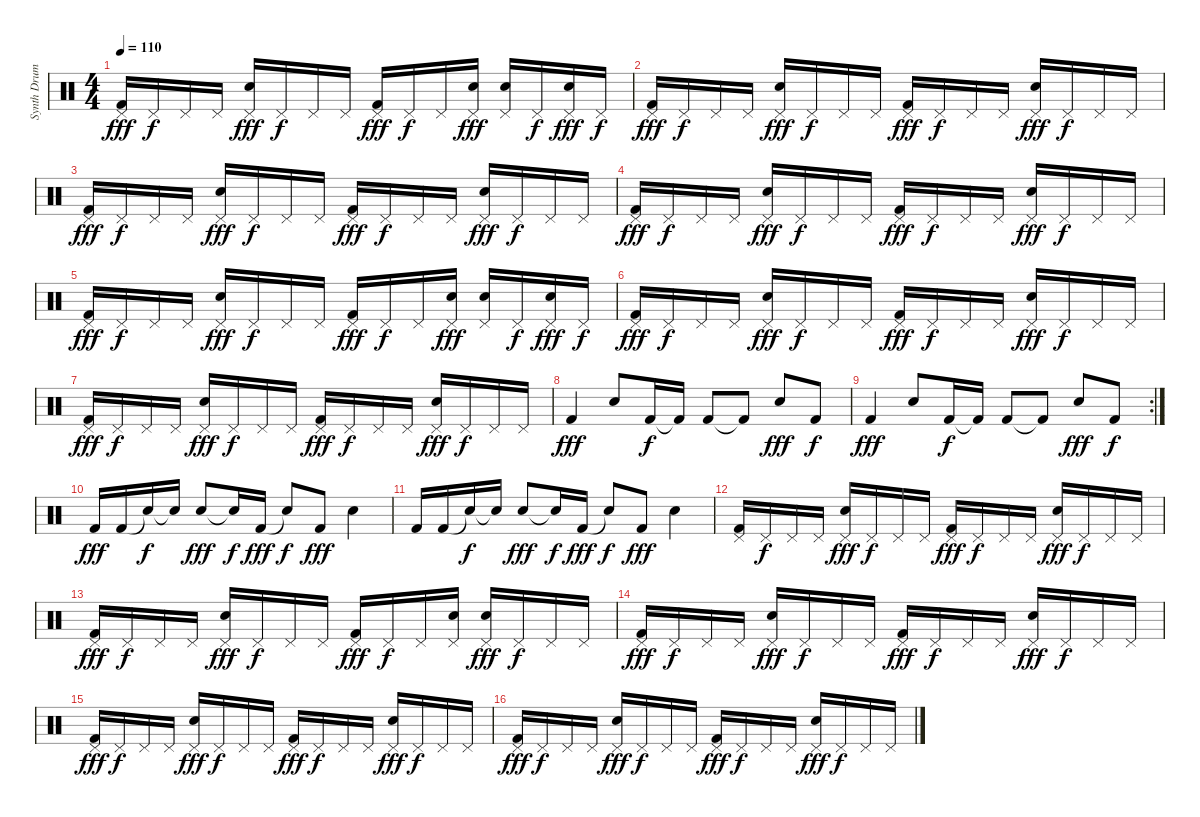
\track ("Synth Drums" "Synth Drum") {instrument percussion}
\staff {score}
\articulation defaults
\ts (4 4)
\tempo 110
\clef neutral
\ks c
("Pedal Hi-Hat (hit)" "Kick (hit) 2").16{dy fff} "Pedal Hi-Hat (hit)".16{dy f} "Pedal Hi-Hat (hit)".16 "Pedal Hi-Hat (hit)".16 ("Pedal Hi-Hat (hit)" "Snare (hit) 2").16{dy fff} "Pedal Hi-Hat (hit)".16{dy f} "Pedal Hi-Hat (hit)".16 "Pedal Hi-Hat (hit)".16 ("Pedal Hi-Hat (hit)" "Kick (hit) 2").16{dy fff} "Pedal Hi-Hat (hit)".16{dy f} "Pedal Hi-Hat (hit)".16 ("Pedal Hi-Hat (hit)" "Snare (hit) 2").16{dy fff} ("Pedal Hi-Hat (hit)" "Snare (hit) 2").16 "Pedal Hi-Hat (hit)".16{dy f} ("Pedal Hi-Hat (hit)" "Snare (hit) 2").16{dy fff} "Pedal Hi-Hat (hit)".16{dy f} |
("Pedal Hi-Hat (hit)" "Kick (hit) 2").16{dy fff} "Pedal Hi-Hat (hit)".16{dy f} "Pedal Hi-Hat (hit)".16 "Pedal Hi-Hat (hit)".16 ("Pedal Hi-Hat (hit)" "Snare (hit) 2").16{dy fff} "Pedal Hi-Hat (hit)".16{dy f} "Pedal Hi-Hat (hit)".16 "Pedal Hi-Hat (hit)".16 ("Pedal Hi-Hat (hit)" "Kick (hit) 2").16{dy fff} "Pedal Hi-Hat (hit)".16{dy f} "Pedal Hi-Hat (hit)".16 "Pedal Hi-Hat (hit)".16 ("Pedal Hi-Hat (hit)" "Snare (hit) 2").16{dy fff} "Pedal Hi-Hat (hit)".16{dy f} "Pedal Hi-Hat (hit)".16 "Pedal Hi-Hat (hit)".16 |
("Pedal Hi-Hat (hit)" "Kick (hit) 2").16{dy fff} "Pedal Hi-Hat (hit)".16{dy f} "Pedal Hi-Hat (hit)".16 "Pedal Hi-Hat (hit)".16 ("Pedal Hi-Hat (hit)" "Snare (hit) 2").16{dy fff} "Pedal Hi-Hat (hit)".16{dy f} "Pedal Hi-Hat (hit)".16 "Pedal Hi-Hat (hit)".16 ("Pedal Hi-Hat (hit)" "Kick (hit) 2").16{dy fff} "Pedal Hi-Hat (hit)".16{dy f} "Pedal Hi-Hat (hit)".16 "Pedal Hi-Hat (hit)".16 ("Pedal Hi-Hat (hit)" "Snare (hit) 2").16{dy fff} "Pedal Hi-Hat (hit)".16{dy f} "Pedal Hi-Hat (hit)".16 "Pedal Hi-Hat (hit)".16 |
("Pedal Hi-Hat (hit)" "Kick (hit) 2").16{dy fff} "Pedal Hi-Hat (hit)".16{dy f} "Pedal Hi-Hat (hit)".16 "Pedal Hi-Hat (hit)".16 ("Pedal Hi-Hat (hit)" "Snare (hit) 2").16{dy fff} "Pedal Hi-Hat (hit)".16{dy f} "Pedal Hi-Hat (hit)".16 "Pedal Hi-Hat (hit)".16 ("Pedal Hi-Hat (hit)" "Kick (hit) 2").16{dy fff} "Pedal Hi-Hat (hit)".16{dy f} "Pedal Hi-Hat (hit)".16 "Pedal Hi-Hat (hit)".16 ("Pedal Hi-Hat (hit)" "Snare (hit) 2").16{dy fff} "Pedal Hi-Hat (hit)".16{dy f} "Pedal Hi-Hat (hit)".16 "Pedal Hi-Hat (hit)".16 |
("Pedal Hi-Hat (hit)" "Kick (hit) 2").16{dy fff} "Pedal Hi-Hat (hit)".16{dy f} "Pedal Hi-Hat (hit)".16 "Pedal Hi-Hat (hit)".16 ("Pedal Hi-Hat (hit)" "Snare (hit) 2").16{dy fff} "Pedal Hi-Hat (hit)".16{dy f} "Pedal Hi-Hat (hit)".16 "Pedal Hi-Hat (hit)".16 ("Pedal Hi-Hat (hit)" "Kick (hit) 2").16{dy fff} "Pedal Hi-Hat (hit)".16{dy f} "Pedal Hi-Hat (hit)".16 ("Pedal Hi-Hat (hit)" "Snare (hit) 2").16{dy fff} ("Pedal Hi-Hat (hit)" "Snare (hit) 2").16 "Pedal Hi-Hat (hit)".16{dy f} ("Pedal Hi-Hat (hit)" "Snare (hit) 2").16{dy fff} "Pedal Hi-Hat (hit)".16{dy f} |
("Pedal Hi-Hat (hit)" "Kick (hit) 2").16{dy fff} "Pedal Hi-Hat (hit)".16{dy f} "Pedal Hi-Hat (hit)".16 "Pedal Hi-Hat (hit)".16 ("Pedal Hi-Hat (hit)" "Snare (hit) 2").16{dy fff} "Pedal Hi-Hat (hit)".16{dy f} "Pedal Hi-Hat (hit)".16 "Pedal Hi-Hat (hit)".16 ("Pedal Hi-Hat (hit)" "Kick (hit) 2").16{dy fff} "Pedal Hi-Hat (hit)".16{dy f} "Pedal Hi-Hat (hit)".16 "Pedal Hi-Hat (hit)".16 ("Pedal Hi-Hat (hit)" "Snare (hit) 2").16{dy fff} "Pedal Hi-Hat (hit)".16{dy f} "Pedal Hi-Hat (hit)".16 "Pedal Hi-Hat (hit)".16 |
("Pedal Hi-Hat (hit)" "Kick (hit) 2").16{dy fff} "Pedal Hi-Hat (hit)".16{dy f} "Pedal Hi-Hat (hit)".16 "Pedal Hi-Hat (hit)".16 ("Pedal Hi-Hat (hit)" "Snare (hit) 2").16{dy fff} "Pedal Hi-Hat (hit)".16{dy f} "Pedal Hi-Hat (hit)".16 "Pedal Hi-Hat (hit)".16 ("Pedal Hi-Hat (hit)" "Kick (hit) 2").16{dy fff} "Pedal Hi-Hat (hit)".16{dy f} "Pedal Hi-Hat (hit)".16 "Pedal Hi-Hat (hit)".16 ("Pedal Hi-Hat (hit)" "Snare (hit) 2").16{dy fff} "Pedal Hi-Hat (hit)".16{dy f} "Pedal Hi-Hat (hit)".16 "Pedal Hi-Hat (hit)".16 |
"Kick (hit) 2".4{dy fff} "Snare (hit) 2".8 "Kick (hit) 2".16{dy f} "Kick (hit) 2"{t}.16 "Kick (hit) 2".8 "Kick (hit) 2"{t}.8 "Snare (hit) 2".8{dy fff} "Kick (hit) 2".8{dy f} |
\rc 2 "Kick (hit) 2".4{dy fff} "Snare (hit) 2".8 "Kick (hit) 2".16{dy f} "Kick (hit) 2"{t}.16 "Kick (hit) 2".8 "Kick (hit) 2"{t}.8 "Snare (hit) 2".8{dy fff} "Kick (hit) 2".8{dy f}
|
"Kick (hit) 2".16{dy fff} "Kick (hit) 2".16 "Snare (hit)"{t}.16{dy f} "Snare (hit)"{t}.16 "Snare (hit) 2".8{dy fff} "Snare (hit)"{t}.16{dy f} "Kick (hit) 2".16{dy fff} "Snare (hit)"{t}.8{dy f} "Kick (hit) 2".8{dy fff} "Snare (hit) 2".4 |
"Kick (hit) 2".16 "Kick (hit) 2".16 "Snare (hit)"{t}.16{dy f} "Snare (hit)"{t}.16 "Snare (hit) 2".8{dy fff} "Snare (hit)"{t}.16{dy f} "Kick (hit) 2".16{dy fff} "Snare (hit)"{t}.8{dy f} "Kick (hit) 2".8{dy fff} "Snare (hit) 2".4 |
("Pedal Hi-Hat (hit)" "Kick (hit) 2").16 "Pedal Hi-Hat (hit)".16{dy f} "Pedal Hi-Hat (hit)".16 "Pedal Hi-Hat (hit)".16 ("Pedal Hi-Hat (hit)" "Snare (hit) 2").16{dy fff} "Pedal Hi-Hat (hit)".16{dy f} "Pedal Hi-Hat (hit)".16 "Pedal Hi-Hat (hit)".16 ("Pedal Hi-Hat (hit)" "Kick (hit) 2").16{dy fff} "Pedal Hi-Hat (hit)".16{dy f} "Pedal Hi-Hat (hit)".16 "Pedal Hi-Hat (hit)".16 ("Pedal Hi-Hat (hit)" "Snare (hit) 2").16{dy fff} "Pedal Hi-Hat (hit)".16{dy f} "Pedal Hi-Hat (hit)".16 "Pedal Hi-Hat (hit)".16 |
("Pedal Hi-Hat (hit)" "Kick (hit) 2").16{dy fff} "Pedal Hi-Hat (hit)".16{dy f} "Pedal Hi-Hat (hit)".16 "Pedal Hi-Hat (hit)".16 ("Pedal Hi-Hat (hit)" "Snare (hit) 2").16{dy fff} "Pedal Hi-Hat (hit)".16{dy f} "Pedal Hi-Hat (hit)".16 "Pedal Hi-Hat (hit)".16 ("Pedal Hi-Hat (hit)" "Kick (hit) 2").16{dy fff} "Pedal Hi-Hat (hit)".16{dy f} "Pedal Hi-Hat (hit)".16 ("Pedal Hi-Hat (hit)" "Snare (hit) 2").16 ("Pedal Hi-Hat (hit)" "Snare (hit) 2").16{dy fff} "Pedal Hi-Hat (hit)".16{dy f} "Pedal Hi-Hat (hit)".16 "Pedal Hi-Hat (hit)".16 |
("Pedal Hi-Hat (hit)" "Kick (hit) 2").16{dy fff} "Pedal Hi-Hat (hit)".16{dy f} "Pedal Hi-Hat (hit)".16 "Pedal Hi-Hat (hit)".16 ("Pedal Hi-Hat (hit)" "Snare (hit) 2").16{dy fff} "Pedal Hi-Hat (hit)".16{dy f} "Pedal Hi-Hat (hit)".16 "Pedal Hi-Hat (hit)".16 ("Pedal Hi-Hat (hit)" "Kick (hit) 2").16{dy fff} "Pedal Hi-Hat (hit)".16{dy f} "Pedal Hi-Hat (hit)".16 "Pedal Hi-Hat (hit)".16 ("Pedal Hi-Hat (hit)" "Snare (hit) 2").16{dy fff} "Pedal Hi-Hat (hit)".16{dy f} "Pedal Hi-Hat (hit)".16 "Pedal Hi-Hat (hit)".16 |
("Pedal Hi-Hat (hit)" "Kick (hit) 2").16{dy fff} "Pedal Hi-Hat (hit)".16{dy f} "Pedal Hi-Hat (hit)".16 "Pedal Hi-Hat (hit)".16 ("Pedal Hi-Hat (hit)" "Snare (hit) 2").16{dy fff} "Pedal Hi-Hat (hit)".16{dy f} "Pedal Hi-Hat (hit)".16 "Pedal Hi-Hat (hit)".16 ("Pedal Hi-Hat (hit)" "Kick (hit) 2").16{dy fff} "Pedal Hi-Hat (hit)".16{dy f} "Pedal Hi-Hat (hit)".16 "Pedal Hi-Hat (hit)".16 ("Pedal Hi-Hat (hit)" "Snare (hit) 2").16{dy fff} "Pedal Hi-Hat (hit)".16{dy f} "Pedal Hi-Hat (hit)".16 "Pedal Hi-Hat (hit)".16 |
("Pedal Hi-Hat (hit)" "Kick (hit) 2").16{dy fff} "Pedal Hi-Hat (hit)".16{dy f} "Pedal Hi-Hat (hit)".16 "Pedal Hi-Hat (hit)".16 ("Pedal Hi-Hat (hit)" "Snare (hit) 2").16{dy fff} "Pedal Hi-Hat (hit)".16{dy f} "Pedal Hi-Hat (hit)".16 "Pedal Hi-Hat (hit)".16 ("Pedal Hi-Hat (hit)" "Kick (hit) 2").16{dy fff} "Pedal Hi-Hat (hit)".16{dy f} "Pedal Hi-Hat (hit)".16 "Pedal Hi-Hat (hit)".16 ("Pedal Hi-Hat (hit)" "Snare (hit) 2").16{dy fff} "Pedal Hi-Hat (hit)".16{dy f} "Pedal Hi-Hat (hit)".16 "Pedal Hi-Hat (hit)".16
